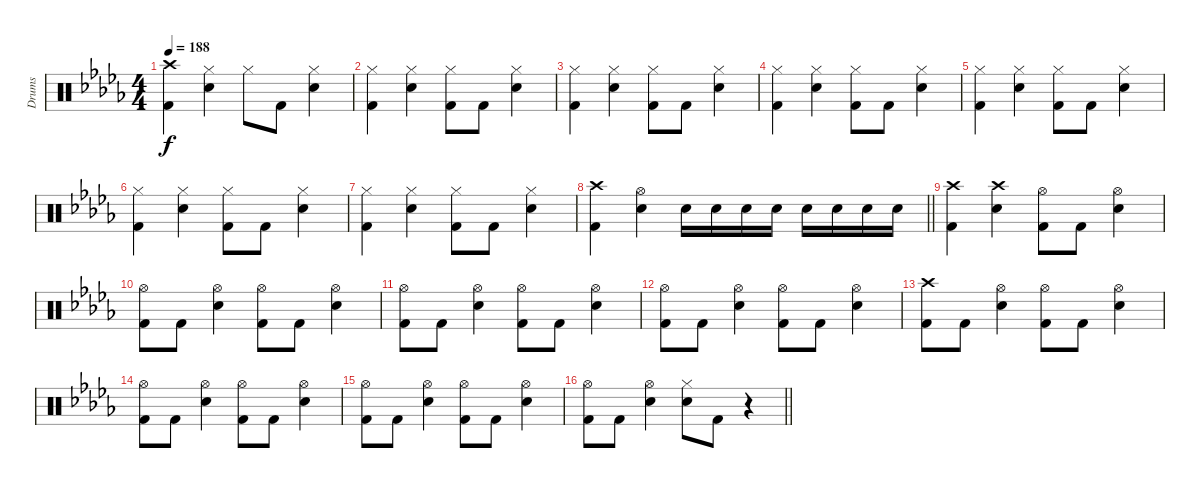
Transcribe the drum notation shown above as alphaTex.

\track ("Drums" "Drums") {instrument percussion}
\staff {score}
\articulation defaults
\ts (4 4)
\tempo 188
\clef neutral
\ks bbminor
("Crash high (hit)" "Kick (hit) 2").4{dy f} ("Hi-Hat (closed)" "Electric Snare (hit)").4 "Hi-Hat (closed)".8 "Kick (hit) 2".8 ("Hi-Hat (closed)" "Electric Snare (hit)").4 |
("Hi-Hat (closed)" "Kick (hit) 2").4 ("Hi-Hat (closed)" "Electric Snare (hit)").4 ("Hi-Hat (closed)" "Kick (hit) 2").8 "Kick (hit) 2".8 ("Hi-Hat (closed)" "Electric Snare (hit)").4 |
("Hi-Hat (closed)" "Kick (hit) 2").4 ("Hi-Hat (closed)" "Electric Snare (hit)").4 ("Hi-Hat (closed)" "Kick (hit) 2").8 "Kick (hit) 2".8 ("Hi-Hat (closed)" "Electric Snare (hit)").4 |
("Hi-Hat (closed)" "Kick (hit) 2").4 ("Hi-Hat (closed)" "Electric Snare (hit)").4 ("Hi-Hat (closed)" "Kick (hit) 2").8 "Kick (hit) 2".8 ("Hi-Hat (closed)" "Electric Snare (hit)").4 |
("Hi-Hat (closed)" "Kick (hit) 2").4 ("Hi-Hat (closed)" "Electric Snare (hit)").4 ("Hi-Hat (closed)" "Kick (hit) 2").8 "Kick (hit) 2".8 ("Hi-Hat (closed)" "Electric Snare (hit)").4 |
("Hi-Hat (closed)" "Kick (hit) 2").4 ("Hi-Hat (closed)" "Electric Snare (hit)").4 ("Hi-Hat (closed)" "Kick (hit) 2").8 "Kick (hit) 2".8 ("Hi-Hat (closed)" "Electric Snare (hit)").4 |
("Hi-Hat (closed)" "Kick (hit) 2").4 ("Hi-Hat (closed)" "Electric Snare (hit)").4 ("Hi-Hat (closed)" "Kick (hit) 2").8 "Kick (hit) 2".8 ("Hi-Hat (closed)" "Electric Snare (hit)").4 |
\barLineRight lightlight
("Crash high (hit)" "Kick (hit) 2").4 ("Hi-Hat (open)" "Electric Snare (hit)").4 "Electric Snare (hit)".16 "Electric Snare (hit)".16 "Electric Snare (hit)".16 "Electric Snare (hit)".16 "Electric Snare (hit)".16 "Electric Snare (hit)".16 "Electric Snare (hit)".16 "Electric Snare (hit)".16 |
("Crash high (hit)" "Kick (hit) 2").4 ("Crash high (hit)" "Electric Snare (hit)").4 ("Hi-Hat (open)" "Kick (hit) 2").8 "Kick (hit) 2".8 ("Hi-Hat (open)" "Electric Snare (hit)").4 |
("Hi-Hat (open)" "Kick (hit) 2").8 "Kick (hit) 2".8 ("Hi-Hat (open)" "Electric Snare (hit)").4 ("Hi-Hat (open)" "Kick (hit) 2").8 "Kick (hit) 2".8 ("Hi-Hat (open)" "Electric Snare (hit)").4 |
("Hi-Hat (open)" "Kick (hit) 2").8 "Kick (hit) 2".8 ("Hi-Hat (open)" "Electric Snare (hit)").4 ("Hi-Hat (open)" "Kick (hit) 2").8 "Kick (hit) 2".8 ("Hi-Hat (open)" "Electric Snare (hit)").4 |
("Hi-Hat (open)" "Kick (hit) 2").8 "Kick (hit) 2".8 ("Hi-Hat (open)" "Electric Snare (hit)").4 ("Hi-Hat (open)" "Kick (hit) 2").8 "Kick (hit) 2".8 ("Hi-Hat (open)" "Electric Snare (hit)").4 |
("Crash high (hit)" "Kick (hit) 2").8 "Kick (hit) 2".8 ("Hi-Hat (open)" "Electric Snare (hit)").4 ("Hi-Hat (open)" "Kick (hit) 2").8 "Kick (hit) 2".8 ("Hi-Hat (open)" "Electric Snare (hit)").4 |
("Hi-Hat (open)" "Kick (hit) 2").8 "Kick (hit) 2".8 ("Hi-Hat (open)" "Electric Snare (hit)").4 ("Hi-Hat (open)" "Kick (hit) 2").8 "Kick (hit) 2".8 ("Hi-Hat (open)" "Electric Snare (hit)").4 |
("Hi-Hat (open)" "Kick (hit) 2").8 "Kick (hit) 2".8 ("Hi-Hat (open)" "Electric Snare (hit)").4 ("Hi-Hat (open)" "Kick (hit) 2").8 "Kick (hit) 2".8 ("Hi-Hat (open)" "Electric Snare (hit)").4 |
\barLineRight lightlight
("Hi-Hat (open)" "Kick (hit) 2").8 "Kick (hit) 2".8 ("Hi-Hat (open)" "Electric Snare (hit)").4 ("Hi-Hat (closed)" "Electric Snare (hit)").8 "Kick (hit) 2".8 r.4
